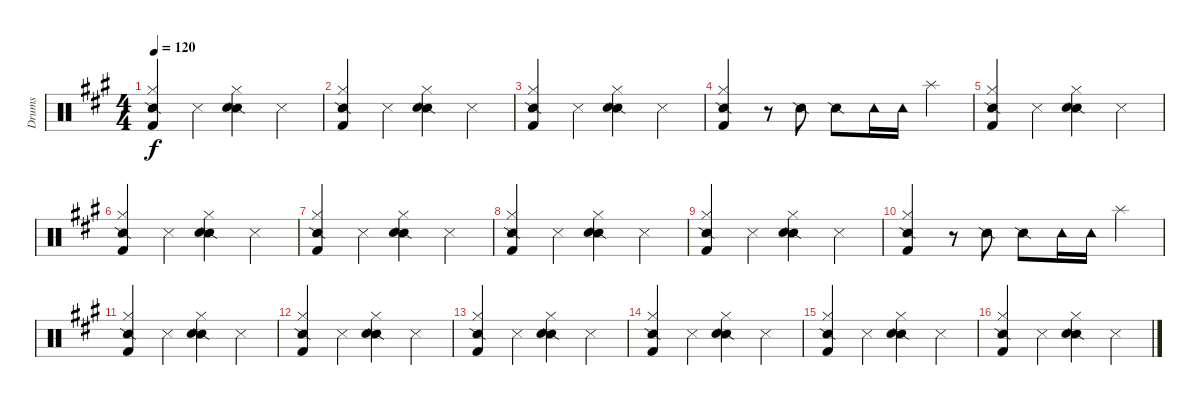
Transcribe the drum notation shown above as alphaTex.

\track ("Drums" "Drums") {instrument percussion}
\staff {score}
\articulation defaults
\ts (4 4)
\tempo 120
\clef neutral
\ks a
("Snare (side stick) 2" "Hi-Hat (closed)" "Kick (hit) 2").4{dy f} "Snare (side stick) 3".4 ("Snare (side stick) 2" "Hi-Hat (closed)" "Electric Snare (hit)").4 "Snare (side stick) 3".4 |
("Snare (side stick) 2" "Hi-Hat (closed)" "Kick (hit) 2").4 "Snare (side stick) 3".4 ("Snare (side stick) 2" "Hi-Hat (closed)" "Electric Snare (hit)").4 "Snare (side stick) 3".4 |
("Snare (side stick) 2" "Hi-Hat (closed)" "Kick (hit) 2").4 "Snare (side stick) 3".4 ("Snare (side stick) 2" "Hi-Hat (closed)" "Electric Snare (hit)").4 "Snare (side stick) 3".4 |
("Snare (side stick) 2" "Hi-Hat (closed)" "Kick (hit) 2").4 r.8 "Snare (side stick) 2".8 "Snare (side stick) 2".8 "Tambourine (hit)".16 "Tambourine (hit)".16 "Splash (hit)".4 |
("Snare (side stick) 2" "Hi-Hat (closed)" "Kick (hit) 2").4 "Snare (side stick) 3".4 ("Snare (side stick) 2" "Hi-Hat (closed)" "Electric Snare (hit)").4 "Snare (side stick) 3".4 |
("Snare (side stick) 2" "Hi-Hat (closed)" "Kick (hit) 2").4 "Snare (side stick) 3".4 ("Snare (side stick) 2" "Hi-Hat (closed)" "Electric Snare (hit)").4 "Snare (side stick) 3".4 |
("Snare (side stick) 2" "Hi-Hat (closed)" "Kick (hit) 2").4 "Snare (side stick) 3".4 ("Snare (side stick) 2" "Hi-Hat (closed)" "Electric Snare (hit)").4 "Snare (side stick) 3".4 |
("Snare (side stick) 2" "Hi-Hat (closed)" "Kick (hit) 2").4 "Snare (side stick) 3".4 ("Snare (side stick) 2" "Hi-Hat (closed)" "Electric Snare (hit)").4 "Snare (side stick) 3".4 |
("Snare (side stick) 2" "Hi-Hat (closed)" "Kick (hit) 2").4 "Snare (side stick) 3".4 ("Snare (side stick) 2" "Hi-Hat (closed)" "Electric Snare (hit)").4 "Snare (side stick) 3".4 |
("Snare (side stick) 2" "Hi-Hat (closed)" "Kick (hit) 2").4 r.8 "Snare (side stick) 2".8 "Snare (side stick) 2".8 "Tambourine (hit)".16 "Tambourine (hit)".16 "Splash (hit)".4 |
("Snare (side stick) 2" "Hi-Hat (closed)" "Kick (hit) 2").4 "Snare (side stick) 3".4 ("Snare (side stick) 2" "Hi-Hat (closed)" "Electric Snare (hit)").4 "Snare (side stick) 3".4 |
("Snare (side stick) 2" "Hi-Hat (closed)" "Kick (hit) 2").4 "Snare (side stick) 3".4 ("Snare (side stick) 2" "Hi-Hat (closed)" "Electric Snare (hit)").4 "Snare (side stick) 3".4 |
("Snare (side stick) 2" "Hi-Hat (closed)" "Kick (hit) 2").4 "Snare (side stick) 3".4 ("Snare (side stick) 2" "Hi-Hat (closed)" "Electric Snare (hit)").4 "Snare (side stick) 3".4 |
("Snare (side stick) 2" "Hi-Hat (closed)" "Kick (hit) 2").4 "Snare (side stick) 3".4 ("Snare (side stick) 2" "Hi-Hat (closed)" "Electric Snare (hit)").4 "Snare (side stick) 3".4 |
("Snare (side stick) 2" "Hi-Hat (closed)" "Kick (hit) 2").4 "Snare (side stick) 3".4 ("Snare (side stick) 2" "Hi-Hat (closed)" "Electric Snare (hit)").4 "Snare (side stick) 3".4 |
("Snare (side stick) 2" "Hi-Hat (closed)" "Kick (hit) 2").4 "Snare (side stick) 3".4 ("Snare (side stick) 2" "Hi-Hat (closed)" "Electric Snare (hit)").4 "Snare (side stick) 3".4
